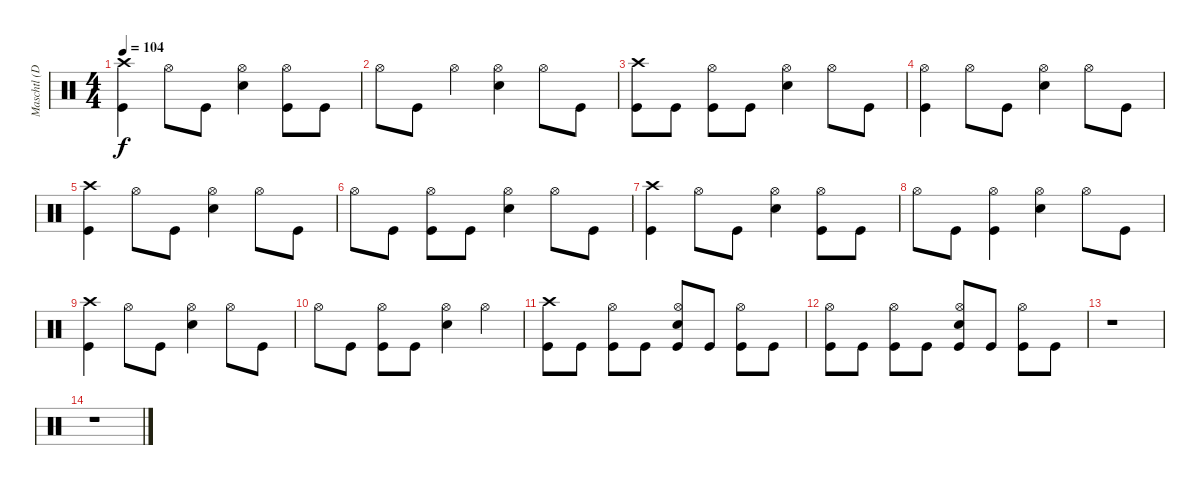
\track ("Maschtl (Drums)" "Maschtl (D") {instrument percussion}
\staff {score}
\articulation defaults
\ts (4 4)
\tempo 104
\clef neutral
\ks c
("Crash high (hit)" "Kick (hit)").4{dy f} "Hi-Hat (open)".8 "Kick (hit)".8 ("Hi-Hat (open)" "Electric Snare (hit)").4 ("Hi-Hat (open)" "Kick (hit)").8 "Kick (hit)".8 |
"Hi-Hat (open)".8 "Kick (hit)".8 "Hi-Hat (open)".4 ("Hi-Hat (open)" "Electric Snare (hit)").4 "Hi-Hat (open)".8 "Kick (hit)".8 |
("Crash high (hit)" "Kick (hit)").8 "Kick (hit)".8 ("Hi-Hat (open)" "Kick (hit)").8 "Kick (hit)".8 ("Hi-Hat (open)" "Electric Snare (hit)").4 "Hi-Hat (open)".8 "Kick (hit)".8 |
("Hi-Hat (open)" "Kick (hit)").4 "Hi-Hat (open)".8 "Kick (hit)".8 ("Hi-Hat (open)" "Electric Snare (hit)").4 "Hi-Hat (open)".8 "Kick (hit)".8 |
("Crash high (hit)" "Kick (hit)").4 "Hi-Hat (open)".8 "Kick (hit)".8 ("Hi-Hat (open)" "Electric Snare (hit)").4 "Hi-Hat (open)".8 "Kick (hit)".8 |
"Hi-Hat (open)".8 "Kick (hit)".8 ("Hi-Hat (open)" "Kick (hit)").8 "Kick (hit)".8 ("Hi-Hat (open)" "Electric Snare (hit)").4 "Hi-Hat (open)".8 "Kick (hit)".8 |
("Crash high (hit)" "Kick (hit)").4{volume 9} "Hi-Hat (open)".8 "Kick (hit)".8 ("Hi-Hat (open)" "Electric Snare (hit)").4 ("Hi-Hat (open)" "Kick (hit)").8 "Kick (hit)".8 |
"Hi-Hat (open)".8 "Kick (hit)".8 ("Hi-Hat (open)" "Kick (hit)").4 ("Hi-Hat (open)" "Electric Snare (hit)").4 "Hi-Hat (open)".8 "Kick (hit)".8 |
("Crash high (hit)" "Kick (hit)").4{volume 6} "Hi-Hat (open)".8 "Kick (hit)".8 ("Hi-Hat (open)" "Electric Snare (hit)").4 "Hi-Hat (open)".8 "Kick (hit)".8 |
"Hi-Hat (open)".8 "Kick (hit)".8 ("Hi-Hat (open)" "Kick (hit)").8 "Kick (hit)".8 ("Hi-Hat (open)" "Electric Snare (hit)").4 "Hi-Hat (open)".4 |
("Crash high (hit)" "Kick (hit)").8{volume 0} "Kick (hit)".8 ("Hi-Hat (open)" "Kick (hit)").8 "Kick (hit)".8 ("Hi-Hat (open)" "Electric Snare (hit)" "Kick (hit)").8 "Kick (hit)".8 ("Hi-Hat (open)" "Kick (hit)").8 "Kick (hit)".8 |
("Hi-Hat (open)" "Kick (hit)").8 "Kick (hit)".8 ("Hi-Hat (open)" "Kick (hit)").8 "Kick (hit)".8 ("Hi-Hat (open)" "Electric Snare (hit)" "Kick (hit)").8 "Kick (hit)".8 ("Hi-Hat (open)" "Kick (hit)").8 "Kick (hit)".8 |
r.1 |
r.1{volume 16}
